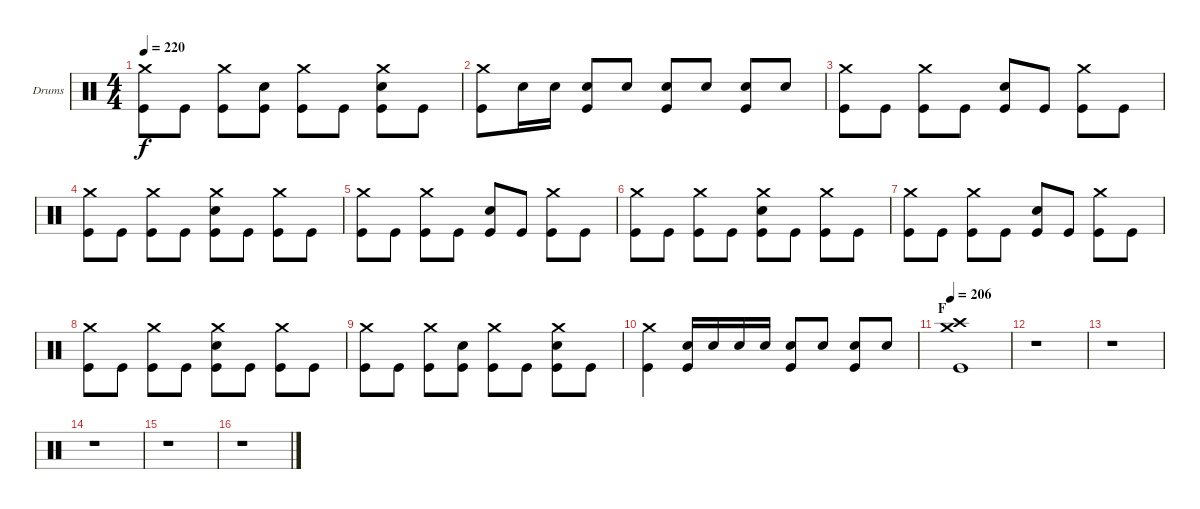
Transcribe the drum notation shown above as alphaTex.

\bracketExtendMode groupsimilarinstruments
\firstSystemTrackNameOrientation horizontal
\otherSystemsTrackNameOrientation horizontal
\track ("Drumkit" "Drums") {instrument percussion}
\staff {score}
\articulation defaults
\ts (4 4)
\tempo 220
\clef neutral
\scale
0.463768
\ks c
("Crash medium (hit)" "Kick (hit)").8{dy f} "Kick (hit)".8 ("Crash medium (hit)" "Kick (hit)").8 ("Snare (hit) 2" "Kick (hit)").8 ("Crash medium (hit)" "Kick (hit)").8 "Kick (hit)".8 ("Crash medium (hit)" "Snare (hit) 2" "Kick (hit)").8 "Kick (hit)".8 |
\scale
0.536232 ("Crash medium (hit)" "Kick (hit)").8 "Snare (hit) 2".16 "Snare (hit) 2".16 ("Snare (hit) 2" "Kick (hit)").8 "Snare (hit) 2".8 ("Snare (hit) 2" "Kick (hit)").8 "Snare (hit) 2".8 ("Snare (hit) 2" "Kick (hit)").8 "Snare (hit) 2".8 |
\scale
0.5 ("Crash medium (hit)" "Kick (hit)").8 "Kick (hit)".8 ("Crash medium (hit)" "Kick (hit)").8 "Kick (hit)".8 ("Snare (hit) 2" "Kick (hit)").8 "Kick (hit)".8 ("Crash medium (hit)" "Kick (hit)").8 "Kick (hit)".8 |
\scale
0.5 ("Crash medium (hit)" "Kick (hit)").8 "Kick (hit)".8 ("Crash medium (hit)" "Kick (hit)").8 "Kick (hit)".8 ("Crash medium (hit)" "Snare (hit) 2" "Kick (hit)").8 "Kick (hit)".8 ("Crash medium (hit)" "Kick (hit)").8 "Kick (hit)".8 |
\scale
0.5 ("Crash medium (hit)" "Kick (hit)").8 "Kick (hit)".8 ("Crash medium (hit)" "Kick (hit)").8 "Kick (hit)".8 ("Snare (hit) 2" "Kick (hit)").8 "Kick (hit)".8 ("Crash medium (hit)" "Kick (hit)").8 "Kick (hit)".8 |
\scale
0.5 ("Crash medium (hit)" "Kick (hit)").8 "Kick (hit)".8 ("Crash medium (hit)" "Kick (hit)").8 "Kick (hit)".8 ("Crash medium (hit)" "Snare (hit) 2" "Kick (hit)").8 "Kick (hit)".8 ("Crash medium (hit)" "Kick (hit)").8 "Kick (hit)".8 |
\scale
0.5 ("Crash medium (hit)" "Kick (hit)").8 "Kick (hit)".8 ("Crash medium (hit)" "Kick (hit)").8 "Kick (hit)".8 ("Snare (hit) 2" "Kick (hit)").8 "Kick (hit)".8 ("Crash medium (hit)" "Kick (hit)").8 "Kick (hit)".8 |
\scale
0.5 ("Crash medium (hit)" "Kick (hit)").8 "Kick (hit)".8 ("Crash medium (hit)" "Kick (hit)").8 "Kick (hit)".8 ("Crash medium (hit)" "Snare (hit) 2" "Kick (hit)").8 "Kick (hit)".8 ("Crash medium (hit)" "Kick (hit)").8 "Kick (hit)".8 |
\scale
0.465116 ("Crash medium (hit)" "Kick (hit)").8 "Kick (hit)".8 ("Crash medium (hit)" "Kick (hit)").8 ("Snare (hit) 2" "Kick (hit)").8 ("Crash medium (hit)" "Kick (hit)").8 "Kick (hit)".8 ("Crash medium (hit)" "Snare (hit) 2" "Kick (hit)").8 "Kick (hit)".8 |
\scale
0.534884 ("Crash medium (hit)" "Kick (hit)").4 ("Snare (hit) 2" "Kick (hit)").16 "Snare (hit) 2".16 "Snare (hit) 2".16 "Snare (hit) 2".16 ("Snare (hit) 2" "Kick (hit)").8 "Snare (hit) 2".8 ("Snare (hit) 2" "Kick (hit)").8 "Snare (hit) 2".8 |
\section ("" "F")
\tempo 206
\scale
0.5 ("Crash high (hit)" "Kick (hit)" "Crash medium (hit)").1 |
\scale
0.5 r.1 |
\scale
0.5 r.1 |
\scale
0.5 r.1 |
\scale
0.5 r.1 |
\scale
0.5 r.1
